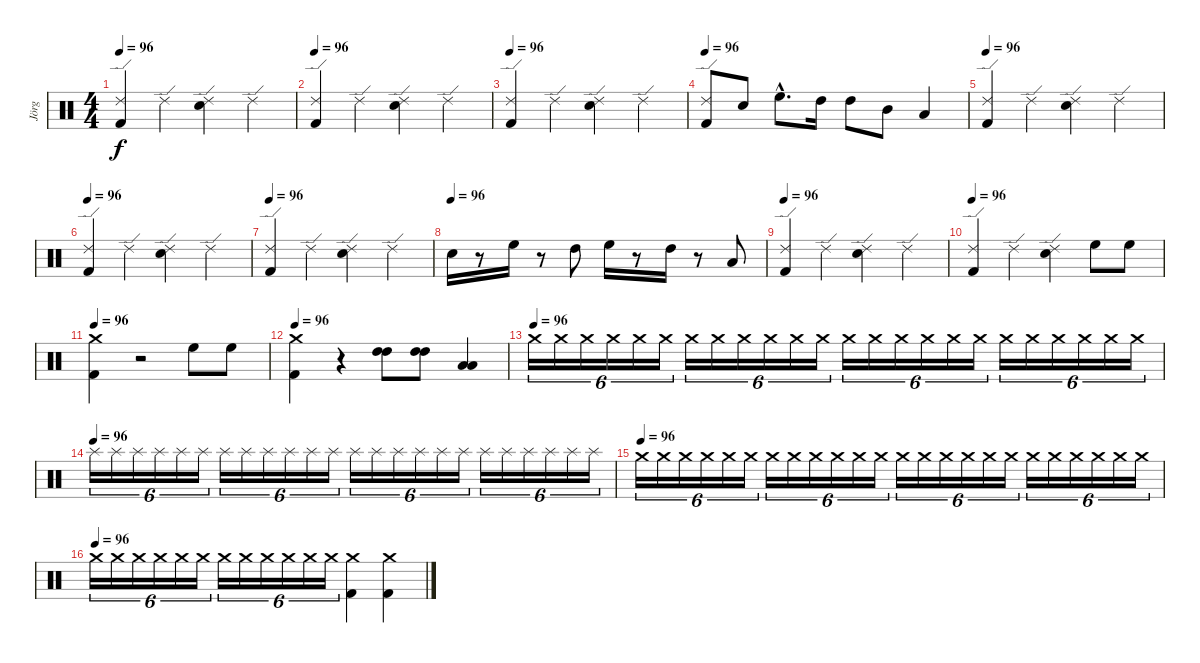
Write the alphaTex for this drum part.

\track ("Jörg" "Jörg") {instrument percussion}
\staff {score}
\articulation defaults
\ts (4 4)
\tempo 96
\clef neutral
\ks c
("Ride (edge) 2" "Kick (hit) 2").4{dy f} "Ride (edge) 2".4 ("Ride (edge) 2" "Snare (hit) 2").4 "Ride (edge) 2".4 |
\tempo 96
("Ride (edge) 2" "Kick (hit) 2").4 "Ride (edge) 2".4 ("Ride (edge) 2" "Snare (hit) 2").4 "Ride (edge) 2".4 |
\tempo 96
("Ride (edge) 2" "Kick (hit) 2").4 "Ride (edge) 2".4 ("Ride (edge) 2" "Snare (hit) 2").4 "Ride (edge) 2".4 |
\tempo 96
("Ride (edge) 2" "Kick (hit) 2").8 "Snare (hit) 2".8 "High Floor Tom (hit)"{hac}.8{d} "High Tom (hit)".16 "High Tom (hit)".8 "Mid Tom (hit)".8 "Low Tom (hit)".4 |
\tempo 96
("Kick (hit) 2" "Ride (edge) 2").4 "Ride (edge) 2".4 ("Snare (hit) 2" "Ride (edge) 2").4 "Ride (edge) 2".4 |
\tempo 96
("Kick (hit) 2" "Ride (edge) 2").4 "Ride (edge) 2".4 ("Snare (hit) 2" "Ride (edge) 2").4 "Ride (edge) 2".4 |
\tempo 96
("Kick (hit) 2" "Ride (edge) 2").4 "Ride (edge) 2".4 ("Snare (hit) 2" "Ride (edge) 2").4 "Ride (edge) 2".4 |
\tempo (96)
"Snare (hit) 2".16 r.8 "High Floor Tom (hit)".16 r.8 "High Tom (hit)".8 "High Floor Tom (hit)".16 r.8 "High Tom (hit)".16 r.8 "Low Tom (hit)".8 |
\tempo 96
("Kick (hit) 2" "Ride (edge) 2").4 "Ride (edge) 2".4 ("Snare (hit) 2" "Ride (edge) 2").4 "Ride (edge) 2".4 |
\tempo 96
("Kick (hit) 2" "Ride (edge) 2").4 "Ride (edge) 2".4 ("Snare (hit) 2" "Ride (edge) 2").4 "High Floor Tom (hit)".8 "High Floor Tom (hit)".8 |
\tempo 96
("Kick (hit) 2" "Crash medium (hit)").4 r.2 "High Floor Tom (hit)".8 "High Floor Tom (hit)".8 |
\tempo 96
("Kick (hit) 2" "Crash medium (hit)").4 r.4 ("High Tom (hit)" "High Tom (hit)").8 ("High Tom (hit)" "High Tom (hit)").8 ("Low Tom (hit)" "Low Tom (hit)").4 |
\tempo (96)
"Crash medium (hit)".16{tu (6 4)} "Crash medium (hit)".16{tu (6 4)} "Crash medium (hit)".16{tu (6 4)} "Crash medium (hit)".16{tu (6 4)} "Crash medium (hit)".16{tu (6 4)} "Crash medium (hit)".16{tu (6 4)} "Crash medium (hit)".16{tu (6 4)} "Crash medium (hit)".16{tu (6 4)} "Crash medium (hit)".16{tu (6 4)} "Crash medium (hit)".16{tu (6 4)} "Crash medium (hit)".16{tu (6 4)} "Crash medium (hit)".16{tu (6 4)} "Crash medium (hit)".16{tu (6 4)} "Crash medium (hit)".16{tu (6 4)} "Crash medium (hit)".16{tu (6 4)} "Crash medium (hit)".16{tu (6 4)} "Crash medium (hit)".16{tu (6 4)} "Crash medium (hit)".16{tu (6 4)} "Crash medium (hit)".16{tu (6 4)} "Crash medium (hit)".16{tu (6 4)} "Crash medium (hit)".16{tu (6 4)} "Crash medium (hit)".16{tu (6 4)} "Crash medium (hit)".16{tu (6 4)} "Crash medium (hit)".16{tu (6 4)} |
\tempo (96)
"Splash (hit)".16{tu (6 4)} "Splash (hit)".16{tu (6 4)} "Splash (hit)".16{tu (6 4)} "Splash (hit)".16{tu (6 4)} "Splash (hit)".16{tu (6 4)} "Splash (hit)".16{tu (6 4)} "Splash (hit)".16{tu (6 4)} "Splash (hit)".16{tu (6 4)} "Splash (hit)".16{tu (6 4)} "Splash (hit)".16{tu (6 4)} "Splash (hit)".16{tu (6 4)} "Splash (hit)".16{tu (6 4)} "Splash (hit)".16{tu (6 4)} "Splash (hit)".16{tu (6 4)} "Splash (hit)".16{tu (6 4)} "Splash (hit)".16{tu (6 4)} "Splash (hit)".16{tu (6 4)} "Splash (hit)".16{tu (6 4)} "Splash (hit)".16{tu (6 4)} "Splash (hit)".16{tu (6 4)} "Splash (hit)".16{tu (6 4)} "Splash (hit)".16{tu (6 4)} "Splash (hit)".16{tu (6 4)} "Splash (hit)".16{tu (6 4)} |
\tempo (96)
"Crash medium (hit)".16{tu (6 4)} "Crash medium (hit)".16{tu (6 4)} "Crash medium (hit)".16{tu (6 4)} "Crash medium (hit)".16{tu (6 4)} "Crash medium (hit)".16{tu (6 4)} "Crash medium (hit)".16{tu (6 4)} "Crash medium (hit)".16{tu (6 4)} "Crash medium (hit)".16{tu (6 4)} "Crash medium (hit)".16{tu (6 4)} "Crash medium (hit)".16{tu (6 4)} "Crash medium (hit)".16{tu (6 4)} "Crash medium (hit)".16{tu (6 4)} "Crash medium (hit)".16{tu (6 4)} "Crash medium (hit)".16{tu (6 4)} "Crash medium (hit)".16{tu (6 4)} "Crash medium (hit)".16{tu (6 4)} "Crash medium (hit)".16{tu (6 4)} "Crash medium (hit)".16{tu (6 4)} "Crash medium (hit)".16{tu (6 4)} "Crash medium (hit)".16{tu (6 4)} "Crash medium (hit)".16{tu (6 4)} "Crash medium (hit)".16{tu (6 4)} "Crash medium (hit)".16{tu (6 4)} "Crash medium (hit)".16{tu (6 4)} |
\tempo (96)
"Crash medium (hit)".16{tu (6 4)} "Crash medium (hit)".16{tu (6 4)} "Crash medium (hit)".16{tu (6 4)} "Crash medium (hit)".16{tu (6 4)} "Crash medium (hit)".16{tu (6 4)} "Crash medium (hit)".16{tu (6 4)} "Crash medium (hit)".16{tu (6 4)} "Crash medium (hit)".16{tu (6 4)} "Crash medium (hit)".16{tu (6 4)} "Crash medium (hit)".16{tu (6 4)} "Crash medium (hit)".16{tu (6 4)} "Crash medium (hit)".16{tu (6 4)} ("Kick (hit) 2" "Crash medium (hit)").4 ("Kick (hit) 2" "Crash medium (hit)").4
